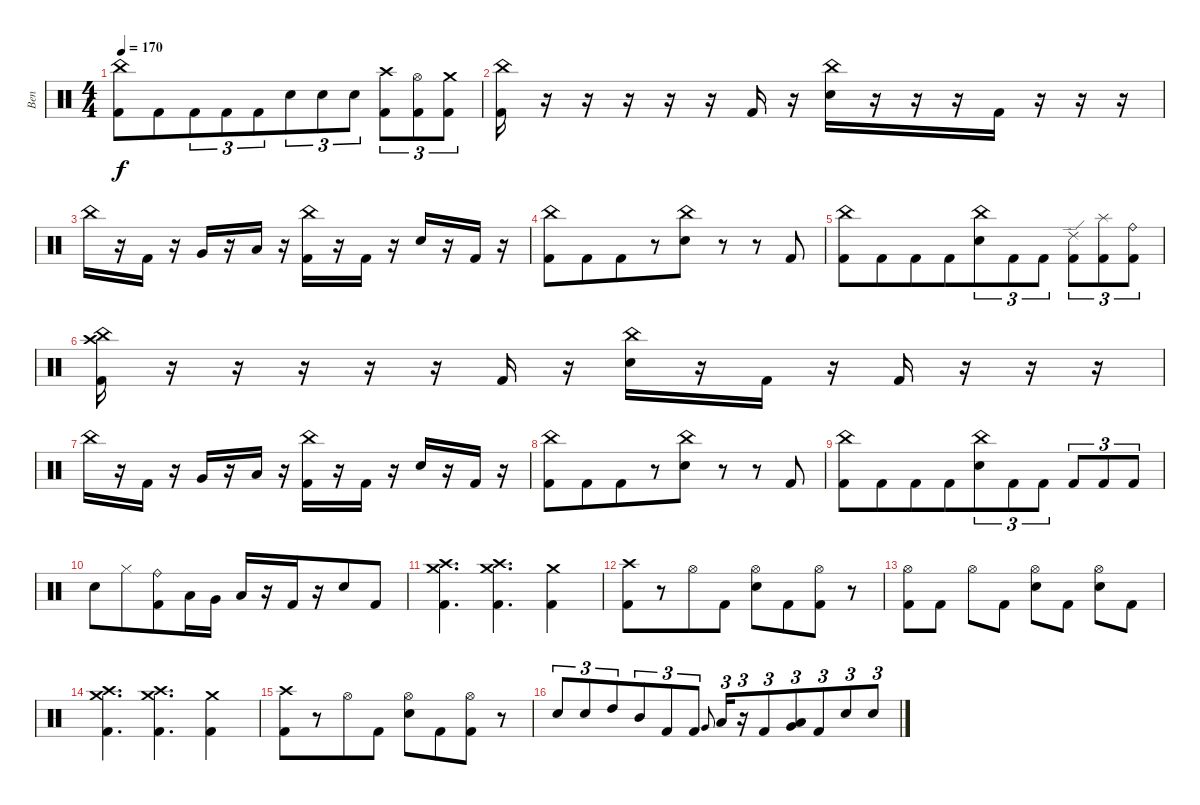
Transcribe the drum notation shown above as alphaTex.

\track ("Ben" "Ben") {instrument percussion}
\staff {score}
\articulation defaults
\ts (4 4)
\tempo 170
\clef neutral
\ks c
("China (hit)" "Kick (hit) 2").8{dy f} "Kick (hit) 2".8{beam merge} "Kick (hit) 2".8{tu (3 2) beam merge} "Kick (hit) 2".8{tu (3 2)} "Kick (hit) 2".8{tu (3 2) beam merge} "Electric Snare (hit)".8{tu (3 2)} "Electric Snare (hit)".8{tu (3 2)} "Electric Snare (hit)".8{tu (3 2)} ("Kick (hit) 2" "Crash high (hit)").8{tu (3 2) beam merge} ("Kick (hit) 2" "Hi-Hat (open)").8{tu (3 2) beam merge} ("Kick (hit) 2" "Crash medium (hit)").8{tu (3 2)} |
("China (hit)" "Kick (hit) 2").16 r.16{beam merge} r.16 r.16{beam merge} r.16 r.16 "Kick (hit) 2".16 r.16 ("Electric Snare (hit)" "China (hit)").16{beam merge} r.16 r.16 r.16 "Kick (hit) 2".16 r.16 r.16 r.16 |
"China (hit)".16{beam merge} r.16{beam merge} "Kick (hit) 2".16 r.16 "Very Low Tom (hit)".16{beam merge} r.16 "Low Floor Tom (hit)".16 r.16 ("Kick (hit) 2" "China (hit)").16{beam merge} r.16{beam merge} "Kick (hit) 2".16 r.16 "Electric Snare (hit)".16 r.16 "Kick (hit) 2".16{beam merge} r.16 |
("Kick (hit) 2" "China (hit)").8 "Kick (hit) 2".8{beam merge} "Kick (hit) 2".8{beam merge} r.8{beam merge} ("China (hit)" "Electric Snare (hit)").8 r.8{beam merge} r.8{beam merge} "Kick (hit) 2".8 |
("China (hit)" "Kick (hit) 2").8 "Kick (hit) 2".8{beam merge} "Kick (hit) 2".8{beam merge} "Kick (hit) 2".8{beam merge} ("Electric Snare (hit)" "China (hit)").8{tu (3 2)} "Kick (hit) 2".8{tu (3 2)} "Kick (hit) 2".8{tu (3 2)} ("Kick (hit) 2" "Ride (edge) 2").8{tu (3 2) beam merge} ("Kick (hit) 2" "Splash (hit)").8{tu (3 2) beam merge} ("Kick (hit) 2" "Ride (bell)").8{tu (3 2)} |
("China (hit)" "Kick (hit) 2" "Crash high (hit)").16 r.16{beam merge} r.16 r.16{beam merge} r.16 r.16 "Kick (hit) 2".16 r.16 ("Electric Snare (hit)" "China (hit)").16{beam merge} r.16 "Kick (hit) 2".16 r.16 "Kick (hit) 2".16 r.16 r.16 r.16 |
"China (hit)".16{beam merge} r.16{beam merge} "Kick (hit) 2".16 r.16 "Very Low Tom (hit)".16{beam merge} r.16 "Low Floor Tom (hit)".16 r.16 ("Kick (hit) 2" "China (hit)").16{beam merge} r.16{beam merge} "Kick (hit) 2".16 r.16 "Electric Snare (hit)".16 r.16 "Kick (hit) 2".16{beam merge} r.16 |
("Kick (hit) 2" "China (hit)").8 "Kick (hit) 2".8{beam merge} "Kick (hit) 2".8{beam merge} r.8{beam merge} ("China (hit)" "Electric Snare (hit)").8 r.8{beam merge} r.8{beam merge} "Kick (hit) 2".8 |
("China (hit)" "Kick (hit) 2").8 "Kick (hit) 2".8{beam merge} "Kick (hit) 2".8{beam merge} "Kick (hit) 2".8{beam merge} ("Electric Snare (hit)" "China (hit)").8{tu (3 2)} "Kick (hit) 2".8{tu (3 2)} "Kick (hit) 2".8{tu (3 2)} "Kick (hit) 2".8{tu (3 2) beam merge} "Kick (hit) 2".8{tu (3 2) beam merge} "Kick (hit) 2".8{tu (3 2)} |
"Electric Snare (hit)".8{beam merge} "Hi-Hat (closed)".8{beam merge} ("Ride (bell)" "Kick (hit) 2").8 "Low Tom (hit)".16 "Very Low Tom (hit)".16 "Low Floor Tom (hit)".16 r.16{beam merge} "Kick (hit) 2".16{beam merge} r.16{beam merge} "Electric Snare (hit)".8{beam merge} "Kick (hit) 2".8 |
("Crash high (hit)" "Crash medium (hit)" "Kick (hit) 2").4{d} ("Crash high (hit)" "Crash medium (hit)" "Kick (hit) 2").4{d beam merge} ("Crash medium (hit)" "Kick (hit) 2").4 |
("Crash high (hit)" "Kick (hit) 2").8{beam merge} r.8 "Hi-Hat (open)".8 "Kick (hit) 2".8 ("Hi-Hat (open)" "Electric Snare (hit)").8{beam merge} "Kick (hit) 2".8{beam merge} ("Hi-Hat (open)" "Kick (hit) 2").8{beam merge} r.8 |
("Hi-Hat (open)" "Kick (hit) 2").8 "Kick (hit) 2".8 "Hi-Hat (open)".8{beam merge} "Kick (hit) 2".8 ("Hi-Hat (open)" "Electric Snare (hit)").8 "Kick (hit) 2".8 ("Hi-Hat (open)" "Electric Snare (hit)").8 "Kick (hit) 2".8 |
("Crash high (hit)" "Crash medium (hit)" "Kick (hit) 2").4{d} ("Crash high (hit)" "Crash medium (hit)" "Kick (hit) 2").4{d beam merge} ("Crash medium (hit)" "Kick (hit) 2").4 |
("Crash high (hit)" "Kick (hit) 2").8{beam merge} r.8 "Hi-Hat (open)".8 "Kick (hit) 2".8 ("Hi-Hat (open)" "Electric Snare (hit)").8{beam merge} "Kick (hit) 2".8{beam merge} ("Hi-Hat (open)" "Kick (hit) 2").8{beam merge} r.8 |
"Electric Snare (hit)".8{tu (3 2) beam merge} "Electric Snare (hit)".8{tu (3 2) beam merge} "High Tom (hit)".8{tu (3 2) beam merge} "Mid Tom (hit)".8{tu (3 2)} "Kick (hit) 2".8{tu (3 2)} "Kick (hit) 2".8{tu (3 2)} "Very Low Tom (hit)".8{gr onbeat beam merge} "Low Tom (hit)".16{tu (3 2)} r.16{tu (3 2) beam merge} "Kick (hit) 2".8{tu (3 2)} ("Low Floor Tom (hit)" "Very Low Tom (hit)").8{tu (3 2) beam merge} "Kick (hit) 2".8{tu (3 2) beam merge} "Electric Snare (hit)".8{tu (3 2) beam merge} "Electric Snare (hit)".8{tu (3 2)}
